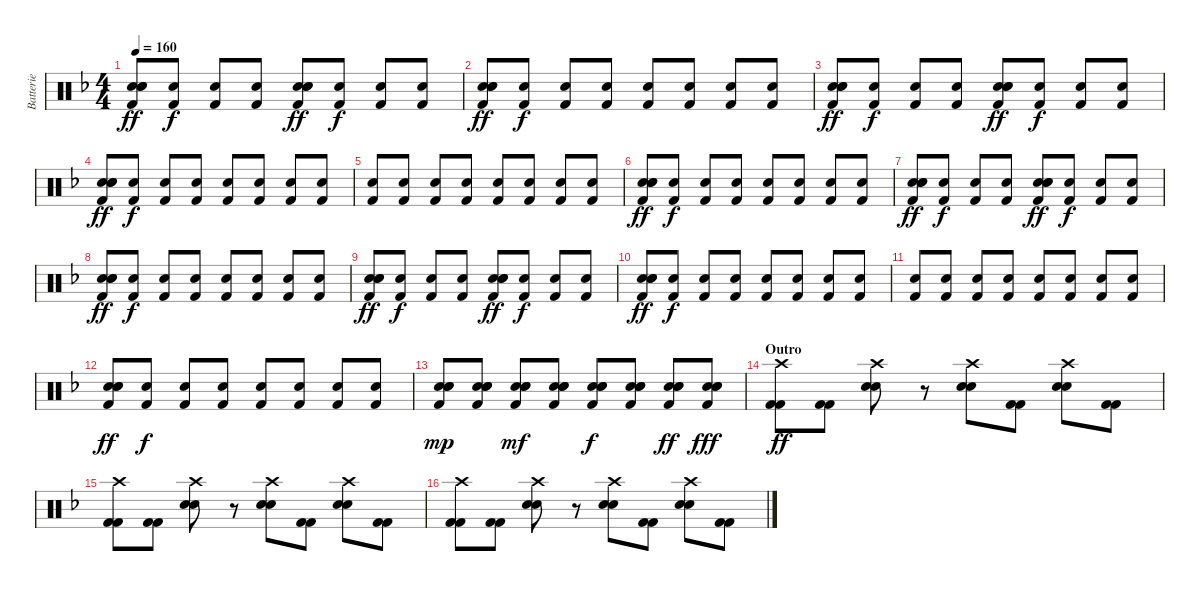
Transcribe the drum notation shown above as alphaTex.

\track ("Batterie" "Batterie") {instrument percussion}
\staff {score}
\articulation defaults
\ts (4 4)
\tempo 160
\clef neutral
\ks f
("Electric Snare (hit)" "Electric Snare (hit)" "Snare (hit) 2" "Kick (hit) 2").8{dy ff} ("Snare (hit) 2" "Kick (hit) 2").8{dy f} ("Snare (hit) 2" "Kick (hit) 2").8 ("Snare (hit) 2" "Kick (hit) 2").8 ("Electric Snare (hit)" "Electric Snare (hit)" "Snare (hit) 2" "Kick (hit) 2").8{dy ff} ("Snare (hit) 2" "Kick (hit) 2").8{dy f} ("Snare (hit) 2" "Kick (hit) 2").8 ("Snare (hit) 2" "Kick (hit) 2").8 |
("Electric Snare (hit)" "Electric Snare (hit)" "Snare (hit) 2" "Kick (hit) 2").8{dy ff} ("Snare (hit) 2" "Kick (hit) 2").8{dy f} ("Snare (hit) 2" "Kick (hit) 2").8 ("Snare (hit) 2" "Kick (hit) 2").8 ("Snare (hit) 2" "Kick (hit) 2").8 ("Snare (hit) 2" "Kick (hit) 2").8 ("Snare (hit) 2" "Kick (hit) 2").8 ("Snare (hit) 2" "Kick (hit) 2").8 |
("Electric Snare (hit)" "Electric Snare (hit)" "Snare (hit) 2" "Kick (hit) 2").8{dy ff} ("Snare (hit) 2" "Kick (hit) 2").8{dy f} ("Snare (hit) 2" "Kick (hit) 2").8 ("Snare (hit) 2" "Kick (hit) 2").8 ("Electric Snare (hit)" "Electric Snare (hit)" "Snare (hit) 2" "Kick (hit) 2").8{dy ff} ("Snare (hit) 2" "Kick (hit) 2").8{dy f} ("Snare (hit) 2" "Kick (hit) 2").8 ("Snare (hit) 2" "Kick (hit) 2").8 |
("Electric Snare (hit)" "Electric Snare (hit)" "Snare (hit) 2" "Kick (hit) 2").8{dy ff} ("Snare (hit) 2" "Kick (hit) 2").8{dy f} ("Snare (hit) 2" "Kick (hit) 2").8 ("Snare (hit) 2" "Kick (hit) 2").8 ("Snare (hit) 2" "Kick (hit) 2").8 ("Snare (hit) 2" "Kick (hit) 2").8 ("Snare (hit) 2" "Kick (hit) 2").8 ("Snare (hit) 2" "Kick (hit) 2").8 |
("Snare (hit) 2" "Kick (hit) 2").8 ("Snare (hit) 2" "Kick (hit) 2").8 ("Snare (hit) 2" "Kick (hit) 2").8 ("Snare (hit) 2" "Kick (hit) 2").8 ("Snare (hit) 2" "Kick (hit) 2").8 ("Snare (hit) 2" "Kick (hit) 2").8 ("Snare (hit) 2" "Kick (hit) 2").8 ("Snare (hit) 2" "Kick (hit) 2").8 |
("Electric Snare (hit)" "Electric Snare (hit)" "Snare (hit) 2" "Kick (hit) 2").8{dy ff} ("Snare (hit) 2" "Kick (hit) 2").8{dy f} ("Snare (hit) 2" "Kick (hit) 2").8 ("Snare (hit) 2" "Kick (hit) 2").8 ("Snare (hit) 2" "Kick (hit) 2").8 ("Snare (hit) 2" "Kick (hit) 2").8 ("Snare (hit) 2" "Kick (hit) 2").8 ("Snare (hit) 2" "Kick (hit) 2").8 |
("Electric Snare (hit)" "Electric Snare (hit)" "Snare (hit) 2" "Kick (hit) 2").8{dy ff} ("Snare (hit) 2" "Kick (hit) 2").8{dy f} ("Snare (hit) 2" "Kick (hit) 2").8 ("Snare (hit) 2" "Kick (hit) 2").8 ("Electric Snare (hit)" "Electric Snare (hit)" "Snare (hit) 2" "Kick (hit) 2").8{dy ff} ("Snare (hit) 2" "Kick (hit) 2").8{dy f} ("Snare (hit) 2" "Kick (hit) 2").8 ("Snare (hit) 2" "Kick (hit) 2").8 |
("Electric Snare (hit)" "Electric Snare (hit)" "Snare (hit) 2" "Kick (hit) 2").8{dy ff} ("Snare (hit) 2" "Kick (hit) 2").8{dy f} ("Snare (hit) 2" "Kick (hit) 2").8 ("Snare (hit) 2" "Kick (hit) 2").8 ("Snare (hit) 2" "Kick (hit) 2").8 ("Snare (hit) 2" "Kick (hit) 2").8 ("Snare (hit) 2" "Kick (hit) 2").8 ("Snare (hit) 2" "Kick (hit) 2").8 |
("Electric Snare (hit)" "Electric Snare (hit)" "Snare (hit) 2" "Kick (hit) 2").8{dy ff} ("Snare (hit) 2" "Kick (hit) 2").8{dy f} ("Snare (hit) 2" "Kick (hit) 2").8 ("Snare (hit) 2" "Kick (hit) 2").8 ("Electric Snare (hit)" "Electric Snare (hit)" "Snare (hit) 2" "Kick (hit) 2").8{dy ff} ("Snare (hit) 2" "Kick (hit) 2").8{dy f} ("Snare (hit) 2" "Kick (hit) 2").8 ("Snare (hit) 2" "Kick (hit) 2").8 |
("Electric Snare (hit)" "Electric Snare (hit)" "Snare (hit) 2" "Kick (hit) 2").8{dy ff} ("Snare (hit) 2" "Kick (hit) 2").8{dy f} ("Snare (hit) 2" "Kick (hit) 2").8 ("Snare (hit) 2" "Kick (hit) 2").8 ("Snare (hit) 2" "Kick (hit) 2").8 ("Snare (hit) 2" "Kick (hit) 2").8 ("Snare (hit) 2" "Kick (hit) 2").8 ("Snare (hit) 2" "Kick (hit) 2").8 |
("Snare (hit) 2" "Kick (hit) 2").8 ("Snare (hit) 2" "Kick (hit) 2").8 ("Snare (hit) 2" "Kick (hit) 2").8 ("Snare (hit) 2" "Kick (hit) 2").8 ("Snare (hit) 2" "Kick (hit) 2").8 ("Snare (hit) 2" "Kick (hit) 2").8 ("Snare (hit) 2" "Kick (hit) 2").8 ("Snare (hit) 2" "Kick (hit) 2").8 |
("Electric Snare (hit)" "Electric Snare (hit)" "Snare (hit) 2" "Kick (hit) 2").8{dy ff} ("Snare (hit) 2" "Kick (hit) 2").8{dy f} ("Snare (hit) 2" "Kick (hit) 2").8 ("Snare (hit) 2" "Kick (hit) 2").8 ("Snare (hit) 2" "Kick (hit) 2").8 ("Snare (hit) 2" "Kick (hit) 2").8 ("Snare (hit) 2" "Kick (hit) 2").8 ("Snare (hit) 2" "Kick (hit) 2").8 |
("Electric Snare (hit)" "Electric Snare (hit)" "Snare (hit) 2" "Kick (hit) 2").8{dy mp} ("Electric Snare (hit)" "Electric Snare (hit)" "Snare (hit) 2" "Kick (hit) 2").8 ("Electric Snare (hit)" "Electric Snare (hit)" "Snare (hit) 2" "Kick (hit) 2").8{dy mf} ("Electric Snare (hit)" "Electric Snare (hit)" "Snare (hit) 2" "Kick (hit) 2").8 ("Electric Snare (hit)" "Electric Snare (hit)" "Snare (hit) 2" "Kick (hit) 2").8{dy f} ("Electric Snare (hit)" "Electric Snare (hit)" "Snare (hit) 2" "Kick (hit) 2").8 ("Electric Snare (hit)" "Electric Snare (hit)" "Snare (hit) 2" "Kick (hit) 2").8{dy ff} ("Electric Snare (hit)" "Electric Snare (hit)" "Snare (hit) 2" "Kick (hit) 2").8{dy fff} |
\section ("" "Outro")
("Crash high (hit)" "Kick (hit) 2" "Kick (hit) 2").8{dy ff} ("Kick (hit) 2" "Kick (hit) 2").8 ("Crash high (hit)" "Electric Snare (hit)" "Electric Snare (hit)").8 r.8 ("Crash high (hit)" "Electric Snare (hit)" "Electric Snare (hit)").8 ("Kick (hit) 2" "Kick (hit) 2").8 ("Crash high (hit)" "Electric Snare (hit)" "Electric Snare (hit)").8 ("Kick (hit) 2" "Kick (hit) 2").8 |
("Crash high (hit)" "Kick (hit) 2" "Kick (hit) 2").8 ("Kick (hit) 2" "Kick (hit) 2").8 ("Crash high (hit)" "Electric Snare (hit)" "Electric Snare (hit)").8 r.8 ("Crash high (hit)" "Electric Snare (hit)" "Electric Snare (hit)").8 ("Kick (hit) 2" "Kick (hit) 2").8 ("Crash high (hit)" "Electric Snare (hit)" "Electric Snare (hit)").8 ("Kick (hit) 2" "Kick (hit) 2").8 |
("Crash high (hit)" "Kick (hit) 2" "Kick (hit) 2").8 ("Kick (hit) 2" "Kick (hit) 2").8 ("Crash high (hit)" "Electric Snare (hit)" "Electric Snare (hit)").8 r.8 ("Crash high (hit)" "Electric Snare (hit)" "Electric Snare (hit)").8 ("Kick (hit) 2" "Kick (hit) 2").8 ("Crash high (hit)" "Electric Snare (hit)" "Electric Snare (hit)").8 ("Kick (hit) 2" "Kick (hit) 2").8
